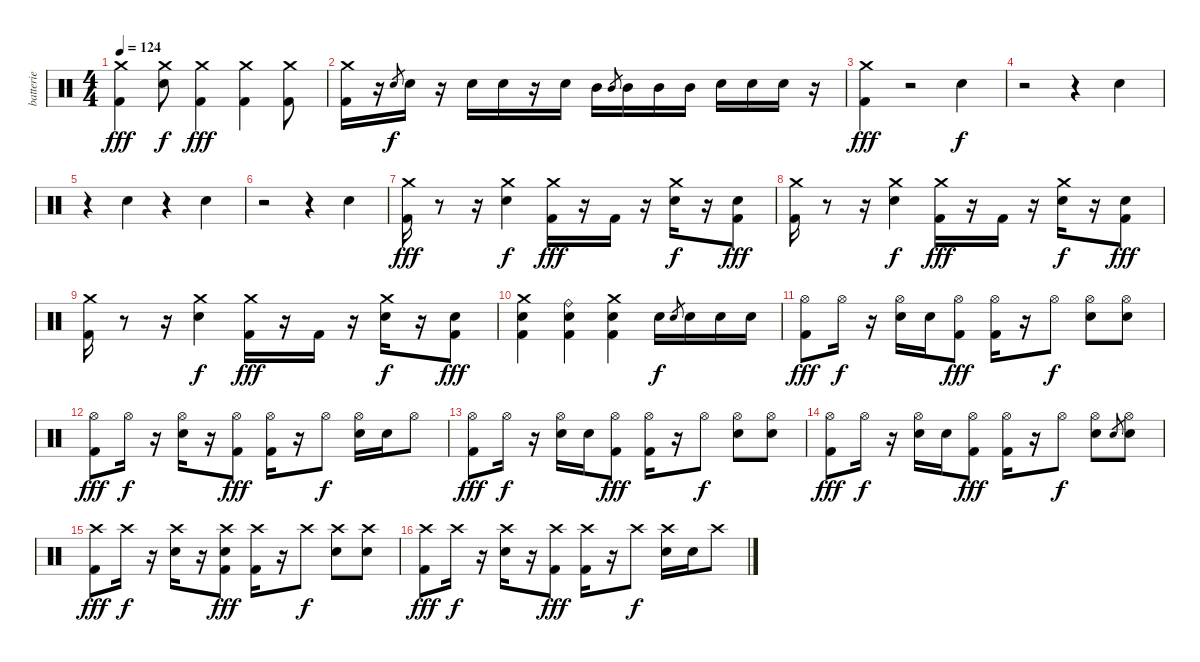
\track ("batterie" "batterie") {instrument percussion}
\staff {score}
\articulation defaults
\ts (4 4)
\tempo 124
\clef neutral
\ks c
("Crash medium (hit)" "Kick (hit) 2").4{dy fff} ("Crash medium (hit)" "Electric Snare (hit)").8{dy f} ("Crash medium (hit)" "Kick (hit) 2").4{dy fff} ("Crash medium (hit)" "Kick (hit) 2").4 ("Crash medium (hit)" "Kick (hit) 2").8 |
("Crash medium (hit)" "Kick (hit) 2").16 r.16 "Electric Snare (hit)".8{gr dy f} "Electric Snare (hit)".16 r.16 "Electric Snare (hit)".16 "Electric Snare (hit)".16 r.16 "Electric Snare (hit)".16 "Mid Tom (hit)".16 "Mid Tom (hit)".8{gr} "Mid Tom (hit)".16 "Mid Tom (hit)".16 "Mid Tom (hit)".16 "Electric Snare (hit)".16 "Electric Snare (hit)".16 "Electric Snare (hit)".16 r.16 |
("Crash medium (hit)" "Kick (hit) 2").4{dy fff} r.2 "Electric Snare (hit)".4{dy f} |
r.2 r.4 "Electric Snare (hit)".4 |
r.4 "Electric Snare (hit)".4 r.4 "Electric Snare (hit)".4 |
r.2 r.4 "Electric Snare (hit)".4 |
("Crash medium (hit)" "Kick (hit) 2").16{dy fff} r.8 r.16 ("Crash medium (hit)" "Electric Snare (hit)").4{dy f} ("Crash medium (hit)" "Kick (hit) 2").16{dy fff} r.16 "Kick (hit) 2".16 r.16 ("Crash medium (hit)" "Electric Snare (hit)").16{dy f} r.16 ("Electric Snare (hit)" "Kick (hit) 2").8{dy fff} |
("Crash medium (hit)" "Kick (hit) 2").16 r.8 r.16 ("Crash medium (hit)" "Electric Snare (hit)").4{dy f} ("Crash medium (hit)" "Kick (hit) 2").16{dy fff} r.16 "Kick (hit) 2".16 r.16 ("Crash medium (hit)" "Electric Snare (hit)").16{dy f} r.16 ("Electric Snare (hit)" "Kick (hit) 2").8{dy fff} |
("Crash medium (hit)" "Kick (hit) 2").16 r.8 r.16 ("Crash medium (hit)" "Electric Snare (hit)").4{dy f} ("Crash medium (hit)" "Kick (hit) 2").16{dy fff} r.16 "Kick (hit) 2".16 r.16 ("Crash medium (hit)" "Electric Snare (hit)").16{dy f} r.16 ("Electric Snare (hit)" "Kick (hit) 2").8{dy fff} |
("Crash medium (hit)" "Electric Snare (hit)" "Kick (hit) 2").4 ("Ride (bell)" "Electric Snare (hit)" "Kick (hit) 2").4 ("Crash medium (hit)" "Electric Snare (hit)" "Kick (hit) 2").4 "Electric Snare (hit)".16{dy f} "Electric Snare (hit)".8{gr} "Electric Snare (hit)".16 "Electric Snare (hit)".16 "Electric Snare (hit)".16 |
("Hi-Hat (open)" "Kick (hit) 2").8{dy fff} "Hi-Hat (open)".16{dy f} r.16 ("Hi-Hat (open)" "Electric Snare (hit)").16 "Electric Snare (hit)".16 ("Hi-Hat (open)" "Kick (hit) 2").8{dy fff} ("Hi-Hat (open)" "Kick (hit) 2").16 r.16 "Hi-Hat (open)".8{dy f} ("Hi-Hat (open)" "Electric Snare (hit)").8 ("Hi-Hat (open)" "Electric Snare (hit)").8 |
("Hi-Hat (open)" "Kick (hit) 2").8{dy fff} "Hi-Hat (open)".16{dy f} r.16 ("Hi-Hat (open)" "Electric Snare (hit)").16 r.16 ("Hi-Hat (open)" "Kick (hit) 2").8{dy fff} ("Hi-Hat (open)" "Kick (hit) 2").16 r.16 "Hi-Hat (open)".8{dy f} ("Hi-Hat (open)" "Electric Snare (hit)").16 "Electric Snare (hit)".16 "Hi-Hat (open)".8 |
("Hi-Hat (open)" "Kick (hit) 2").8{dy fff} "Hi-Hat (open)".16{dy f} r.16 ("Hi-Hat (open)" "Electric Snare (hit)").16 "Electric Snare (hit)".16 ("Hi-Hat (open)" "Kick (hit) 2").8{dy fff} ("Hi-Hat (open)" "Kick (hit) 2").16 r.16 "Hi-Hat (open)".8{dy f} ("Hi-Hat (open)" "Electric Snare (hit)").8 ("Hi-Hat (open)" "Electric Snare (hit)").8 |
("Hi-Hat (open)" "Kick (hit) 2").8{dy fff} "Hi-Hat (open)".16{dy f} r.16 ("Hi-Hat (open)" "Electric Snare (hit)").16 "Electric Snare (hit)".16 ("Hi-Hat (open)" "Kick (hit) 2").8{dy fff} ("Hi-Hat (open)" "Kick (hit) 2").16 r.16 "Hi-Hat (open)".8{dy f} ("Hi-Hat (open)" "Electric Snare (hit)").8 "Electric Snare (hit)".8{gr} ("Hi-Hat (open)" "Electric Snare (hit)").8 |
("Crash high (hit)" "Kick (hit) 2").8{dy fff} "Crash high (hit)".16{dy f} r.16 ("Crash high (hit)" "Electric Snare (hit)").16 r.16 ("Crash high (hit)" "Electric Snare (hit)" "Kick (hit) 2").8{dy fff} ("Crash high (hit)" "Kick (hit) 2").16 r.16 "Crash high (hit)".8{dy f} ("Crash high (hit)" "Electric Snare (hit)").8 ("Crash high (hit)" "Electric Snare (hit)").8 |
("Crash high (hit)" "Kick (hit) 2").8{dy fff} "Crash high (hit)".16{dy f} r.16 ("Crash high (hit)" "Electric Snare (hit)").16 r.16 ("Crash high (hit)" "Kick (hit) 2").8{dy fff} ("Crash high (hit)" "Kick (hit) 2").16 r.16 "Crash high (hit)".8{dy f} ("Crash high (hit)" "Electric Snare (hit)").16 "Electric Snare (hit)".16 "Crash high (hit)".8
